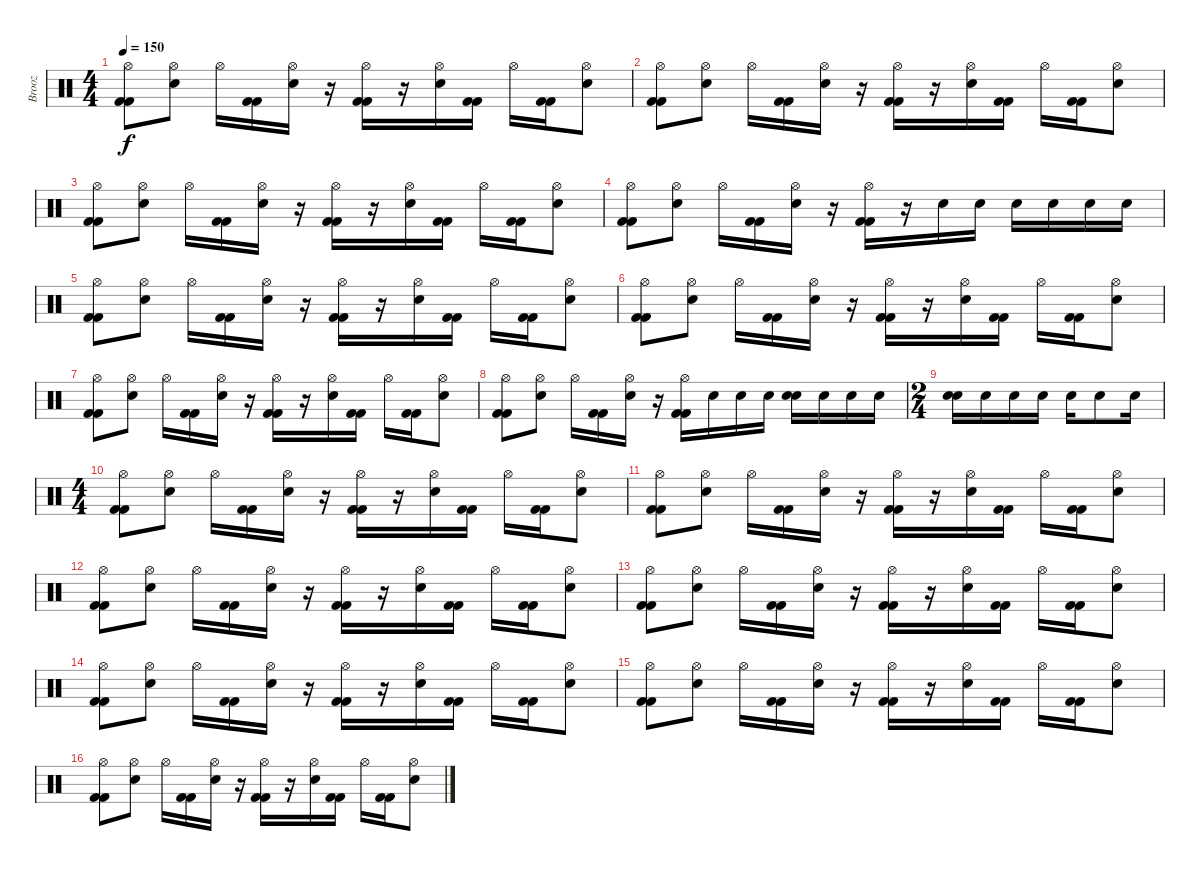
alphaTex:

\track ("Brooz" "Brooz") {instrument percussion}
\staff {score}
\articulation defaults
\ts (4 4)
\tempo 150
\clef neutral
\ks c
("Hi-Hat (open)" "Kick (hit) 2" "Kick (hit) 2").8{dy f} ("Hi-Hat (open)" "Electric Snare (hit)").8 "Hi-Hat (open)".16 ("Kick (hit) 2" "Kick (hit) 2").16 ("Hi-Hat (open)" "Electric Snare (hit)").16 r.16 ("Hi-Hat (open)" "Kick (hit) 2" "Kick (hit) 2").16 r.16 ("Hi-Hat (open)" "Electric Snare (hit)").16 ("Kick (hit) 2" "Kick (hit) 2").16 "Hi-Hat (open)".16 ("Kick (hit) 2" "Kick (hit) 2").16 ("Hi-Hat (open)" "Electric Snare (hit)").8 |
("Hi-Hat (open)" "Kick (hit) 2" "Kick (hit) 2").8 ("Hi-Hat (open)" "Electric Snare (hit)").8 "Hi-Hat (open)".16 ("Kick (hit) 2" "Kick (hit) 2").16 ("Hi-Hat (open)" "Electric Snare (hit)").16 r.16 ("Hi-Hat (open)" "Kick (hit) 2" "Kick (hit) 2").16 r.16 ("Hi-Hat (open)" "Electric Snare (hit)").16 ("Kick (hit) 2" "Kick (hit) 2").16 "Hi-Hat (open)".16 ("Kick (hit) 2" "Kick (hit) 2").16 ("Hi-Hat (open)" "Electric Snare (hit)").8 |
("Hi-Hat (open)" "Kick (hit) 2" "Kick (hit) 2").8 ("Hi-Hat (open)" "Electric Snare (hit)").8 "Hi-Hat (open)".16 ("Kick (hit) 2" "Kick (hit) 2").16 ("Hi-Hat (open)" "Electric Snare (hit)").16 r.16 ("Hi-Hat (open)" "Kick (hit) 2" "Kick (hit) 2").16 r.16 ("Hi-Hat (open)" "Electric Snare (hit)").16 ("Kick (hit) 2" "Kick (hit) 2").16 "Hi-Hat (open)".16 ("Kick (hit) 2" "Kick (hit) 2").16 ("Hi-Hat (open)" "Electric Snare (hit)").8 |
("Hi-Hat (open)" "Kick (hit) 2" "Kick (hit) 2").8 ("Hi-Hat (open)" "Electric Snare (hit)").8 "Hi-Hat (open)".16 ("Kick (hit) 2" "Kick (hit) 2").16 ("Hi-Hat (open)" "Electric Snare (hit)").16 r.16 ("Hi-Hat (open)" "Kick (hit) 2" "Kick (hit) 2").16 r.16 "Electric Snare (hit)".16 "Electric Snare (hit)".16 "Electric Snare (hit)".16 "Electric Snare (hit)".16 "Electric Snare (hit)".16 "Electric Snare (hit)".16 |
("Hi-Hat (open)" "Kick (hit) 2" "Kick (hit) 2").8 ("Hi-Hat (open)" "Electric Snare (hit)").8 "Hi-Hat (open)".16 ("Kick (hit) 2" "Kick (hit) 2").16 ("Hi-Hat (open)" "Electric Snare (hit)").16 r.16 ("Hi-Hat (open)" "Kick (hit) 2" "Kick (hit) 2").16 r.16 ("Hi-Hat (open)" "Electric Snare (hit)").16 ("Kick (hit) 2" "Kick (hit) 2").16 "Hi-Hat (open)".16 ("Kick (hit) 2" "Kick (hit) 2").16 ("Hi-Hat (open)" "Electric Snare (hit)").8 |
("Hi-Hat (open)" "Kick (hit) 2" "Kick (hit) 2").8 ("Hi-Hat (open)" "Electric Snare (hit)").8 "Hi-Hat (open)".16 ("Kick (hit) 2" "Kick (hit) 2").16 ("Hi-Hat (open)" "Electric Snare (hit)").16 r.16 ("Hi-Hat (open)" "Kick (hit) 2" "Kick (hit) 2").16 r.16 ("Hi-Hat (open)" "Electric Snare (hit)").16 ("Kick (hit) 2" "Kick (hit) 2").16 "Hi-Hat (open)".16 ("Kick (hit) 2" "Kick (hit) 2").16 ("Hi-Hat (open)" "Electric Snare (hit)").8 |
("Hi-Hat (open)" "Kick (hit) 2" "Kick (hit) 2").8 ("Hi-Hat (open)" "Electric Snare (hit)").8 "Hi-Hat (open)".16 ("Kick (hit) 2" "Kick (hit) 2").16 ("Hi-Hat (open)" "Electric Snare (hit)").16 r.16 ("Hi-Hat (open)" "Kick (hit) 2" "Kick (hit) 2").16 r.16 ("Hi-Hat (open)" "Electric Snare (hit)").16 ("Kick (hit) 2" "Kick (hit) 2").16 "Hi-Hat (open)".16 ("Kick (hit) 2" "Kick (hit) 2").16 ("Hi-Hat (open)" "Electric Snare (hit)").8 |
("Hi-Hat (open)" "Kick (hit) 2" "Kick (hit) 2").8 ("Hi-Hat (open)" "Electric Snare (hit)").8 "Hi-Hat (open)".16 ("Kick (hit) 2" "Kick (hit) 2").16 ("Hi-Hat (open)" "Electric Snare (hit)").16 r.16 ("Hi-Hat (open)" "Kick (hit) 2" "Kick (hit) 2").16 "Electric Snare (hit)".16 "Electric Snare (hit)".16 "Electric Snare (hit)".16 ("Electric Snare (hit)" "Electric Snare (hit)").16 "Electric Snare (hit)".16 "Electric Snare (hit)".16 "Electric Snare (hit)".16 |
\ts (2 4)
("Electric Snare (hit)" "Electric Snare (hit)").16 "Electric Snare (hit)".16 "Electric Snare (hit)".16 "Electric Snare (hit)".16 "Electric Snare (hit)".16 "Electric Snare (hit)".8 "Electric Snare (hit)".16 |
\ts (4 4)
("Hi-Hat (open)" "Kick (hit) 2" "Kick (hit) 2").8 ("Hi-Hat (open)" "Electric Snare (hit)").8 "Hi-Hat (open)".16 ("Kick (hit) 2" "Kick (hit) 2").16 ("Hi-Hat (open)" "Electric Snare (hit)").16 r.16 ("Hi-Hat (open)" "Kick (hit) 2" "Kick (hit) 2").16 r.16 ("Hi-Hat (open)" "Electric Snare (hit)").16 ("Kick (hit) 2" "Kick (hit) 2").16 "Hi-Hat (open)".16 ("Kick (hit) 2" "Kick (hit) 2").16 ("Hi-Hat (open)" "Electric Snare (hit)").8 |
("Hi-Hat (open)" "Kick (hit) 2" "Kick (hit) 2").8 ("Hi-Hat (open)" "Electric Snare (hit)").8 "Hi-Hat (open)".16 ("Kick (hit) 2" "Kick (hit) 2").16 ("Hi-Hat (open)" "Electric Snare (hit)").16 r.16 ("Hi-Hat (open)" "Kick (hit) 2" "Kick (hit) 2").16 r.16 ("Hi-Hat (open)" "Electric Snare (hit)").16 ("Kick (hit) 2" "Kick (hit) 2").16 "Hi-Hat (open)".16 ("Kick (hit) 2" "Kick (hit) 2").16 ("Hi-Hat (open)" "Electric Snare (hit)").8 |
("Hi-Hat (open)" "Kick (hit) 2" "Kick (hit) 2").8 ("Hi-Hat (open)" "Electric Snare (hit)").8 "Hi-Hat (open)".16 ("Kick (hit) 2" "Kick (hit) 2").16 ("Hi-Hat (open)" "Electric Snare (hit)").16 r.16 ("Hi-Hat (open)" "Kick (hit) 2" "Kick (hit) 2").16 r.16 ("Hi-Hat (open)" "Electric Snare (hit)").16 ("Kick (hit) 2" "Kick (hit) 2").16 "Hi-Hat (open)".16 ("Kick (hit) 2" "Kick (hit) 2").16 ("Hi-Hat (open)" "Electric Snare (hit)").8 |
("Hi-Hat (open)" "Kick (hit) 2" "Kick (hit) 2").8 ("Hi-Hat (open)" "Electric Snare (hit)").8 "Hi-Hat (open)".16 ("Kick (hit) 2" "Kick (hit) 2").16 ("Hi-Hat (open)" "Electric Snare (hit)").16 r.16 ("Hi-Hat (open)" "Kick (hit) 2" "Kick (hit) 2").16 r.16 ("Hi-Hat (open)" "Electric Snare (hit)").16 ("Kick (hit) 2" "Kick (hit) 2").16 "Hi-Hat (open)".16 ("Kick (hit) 2" "Kick (hit) 2").16 ("Hi-Hat (open)" "Electric Snare (hit)").8 |
("Hi-Hat (open)" "Kick (hit) 2" "Kick (hit) 2").8 ("Hi-Hat (open)" "Electric Snare (hit)").8 "Hi-Hat (open)".16 ("Kick (hit) 2" "Kick (hit) 2").16 ("Hi-Hat (open)" "Electric Snare (hit)").16 r.16 ("Hi-Hat (open)" "Kick (hit) 2" "Kick (hit) 2").16 r.16 ("Hi-Hat (open)" "Electric Snare (hit)").16 ("Kick (hit) 2" "Kick (hit) 2").16 "Hi-Hat (open)".16 ("Kick (hit) 2" "Kick (hit) 2").16 ("Hi-Hat (open)" "Electric Snare (hit)").8 |
("Hi-Hat (open)" "Kick (hit) 2" "Kick (hit) 2").8 ("Hi-Hat (open)" "Electric Snare (hit)").8 "Hi-Hat (open)".16 ("Kick (hit) 2" "Kick (hit) 2").16 ("Hi-Hat (open)" "Electric Snare (hit)").16 r.16 ("Hi-Hat (open)" "Kick (hit) 2" "Kick (hit) 2").16 r.16 ("Hi-Hat (open)" "Electric Snare (hit)").16 ("Kick (hit) 2" "Kick (hit) 2").16 "Hi-Hat (open)".16 ("Kick (hit) 2" "Kick (hit) 2").16 ("Hi-Hat (open)" "Electric Snare (hit)").8 |
("Hi-Hat (open)" "Kick (hit) 2" "Kick (hit) 2").8 ("Hi-Hat (open)" "Electric Snare (hit)").8 "Hi-Hat (open)".16 ("Kick (hit) 2" "Kick (hit) 2").16 ("Hi-Hat (open)" "Electric Snare (hit)").16 r.16 ("Hi-Hat (open)" "Kick (hit) 2" "Kick (hit) 2").16 r.16 ("Hi-Hat (open)" "Electric Snare (hit)").16 ("Kick (hit) 2" "Kick (hit) 2").16 "Hi-Hat (open)".16 ("Kick (hit) 2" "Kick (hit) 2").16 ("Hi-Hat (open)" "Electric Snare (hit)").8
